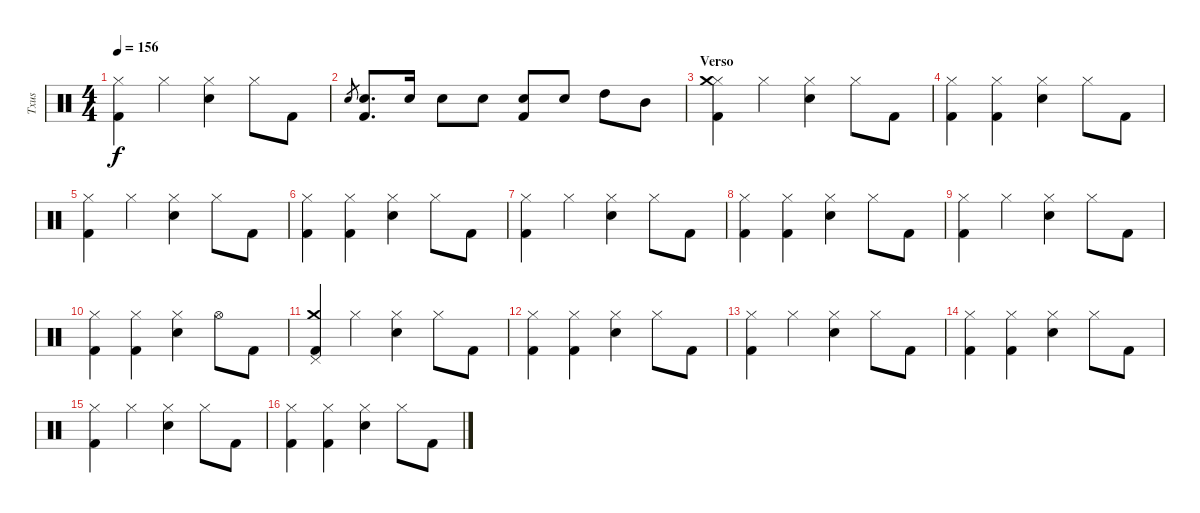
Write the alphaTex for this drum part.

\track ("Txus" "Txus") {instrument percussion}
\staff {score}
\articulation defaults
\ts (4 4)
\tempo 156
\clef neutral
\ks c
("Hi-Hat (closed)" "Kick (hit) 2").4{dy f} "Hi-Hat (closed)".4 ("Snare (hit) 2" "Hi-Hat (closed)").4 "Hi-Hat (closed)".8 "Kick (hit) 2".8 |
"Snare (hit) 2".8{gr} ("Kick (hit) 2" "Snare (hit) 2").8{d} "Snare (hit) 2".16 "Snare (hit) 2".8 "Snare (hit) 2".8 ("Kick (hit) 2" "Snare (hit) 2").8 "Snare (hit) 2".8 "High Tom (hit)".8 "Mid Tom (hit)".8 |
\section ("" "Verso")
("Hi-Hat (closed)" "Crash medium (hit)" "Kick (hit) 2").4 "Hi-Hat (closed)".4 ("Snare (hit) 2" "Hi-Hat (closed)").4 "Hi-Hat (closed)".8 "Kick (hit) 2".8 |
("Kick (hit) 2" "Hi-Hat (closed)").4 ("Hi-Hat (closed)" "Kick (hit) 2").4 ("Hi-Hat (closed)" "Snare (hit) 2").4 "Hi-Hat (closed)".8 "Kick (hit) 2".8 |
("Hi-Hat (closed)" "Kick (hit) 2").4 "Hi-Hat (closed)".4 ("Snare (hit) 2" "Hi-Hat (closed)").4 "Hi-Hat (closed)".8 "Kick (hit) 2".8 |
("Kick (hit) 2" "Hi-Hat (closed)").4 ("Hi-Hat (closed)" "Kick (hit) 2").4 ("Hi-Hat (closed)" "Snare (hit) 2").4 "Hi-Hat (closed)".8 "Kick (hit) 2".8 |
("Hi-Hat (closed)" "Kick (hit) 2").4 "Hi-Hat (closed)".4 ("Snare (hit) 2" "Hi-Hat (closed)").4 "Hi-Hat (closed)".8 "Kick (hit) 2".8 |
("Kick (hit) 2" "Hi-Hat (closed)").4 ("Hi-Hat (closed)" "Kick (hit) 2").4 ("Hi-Hat (closed)" "Snare (hit) 2").4 "Hi-Hat (closed)".8 "Kick (hit) 2".8 |
("Hi-Hat (closed)" "Kick (hit) 2").4 "Hi-Hat (closed)".4 ("Snare (hit) 2" "Hi-Hat (closed)").4 "Hi-Hat (closed)".8 "Kick (hit) 2".8 |
("Kick (hit) 2" "Hi-Hat (closed)").4 ("Hi-Hat (closed)" "Kick (hit) 2").4 ("Hi-Hat (closed)" "Snare (hit) 2").4 "Hi-Hat (open)".8 "Kick (hit) 2".8 |
("Crash medium (hit)" "Pedal Hi-Hat (hit)" "Kick (hit) 2").4 "Hi-Hat (closed)".4 ("Snare (hit) 2" "Hi-Hat (closed)").4 "Hi-Hat (closed)".8 "Kick (hit) 2".8 |
("Kick (hit) 2" "Hi-Hat (closed)").4 ("Hi-Hat (closed)" "Kick (hit) 2").4 ("Hi-Hat (closed)" "Snare (hit) 2").4 "Hi-Hat (closed)".8 "Kick (hit) 2".8 |
("Hi-Hat (closed)" "Kick (hit) 2").4 "Hi-Hat (closed)".4 ("Snare (hit) 2" "Hi-Hat (closed)").4 "Hi-Hat (closed)".8 "Kick (hit) 2".8 |
("Kick (hit) 2" "Hi-Hat (closed)").4 ("Hi-Hat (closed)" "Kick (hit) 2").4 ("Hi-Hat (closed)" "Snare (hit) 2").4 "Hi-Hat (closed)".8 "Kick (hit) 2".8 |
("Hi-Hat (closed)" "Kick (hit) 2").4 "Hi-Hat (closed)".4 ("Snare (hit) 2" "Hi-Hat (closed)").4 "Hi-Hat (closed)".8 "Kick (hit) 2".8 |
("Kick (hit) 2" "Hi-Hat (closed)").4 ("Hi-Hat (closed)" "Kick (hit) 2").4 ("Hi-Hat (closed)" "Snare (hit) 2").4 "Hi-Hat (closed)".8 "Kick (hit) 2".8
